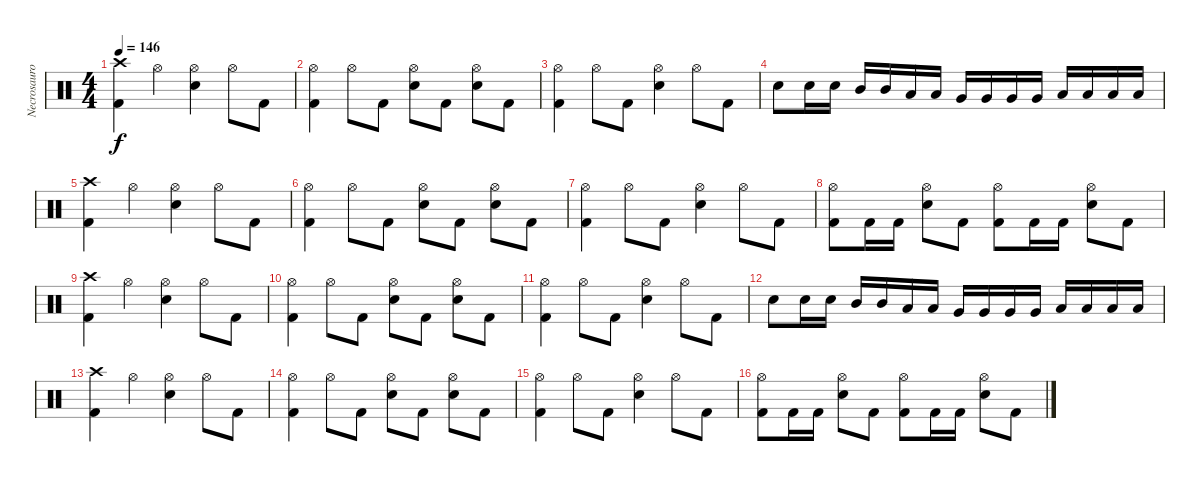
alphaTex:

\track ("Necrosauron" "Necrosauro") {instrument percussion}
\staff {score}
\articulation defaults
\ts (4 4)
\tempo 146
\clef neutral
\ks c
("Crash high (hit)" "Kick (hit) 2").4{dy f} "Hi-Hat (open)".4 ("Hi-Hat (open)" "Snare (hit) 2").4 "Hi-Hat (open)".8 "Kick (hit) 2".8 |
("Hi-Hat (open)" "Kick (hit) 2").4 "Hi-Hat (open)".8 "Kick (hit) 2".8 ("Hi-Hat (open)" "Snare (hit) 2").8 "Kick (hit) 2".8 ("Hi-Hat (open)" "Snare (hit) 2").8 "Kick (hit) 2".8 |
("Hi-Hat (open)" "Kick (hit) 2").4 "Hi-Hat (open)".8 "Kick (hit) 2".8 ("Hi-Hat (open)" "Snare (hit) 2").4 "Hi-Hat (open)".8 "Kick (hit) 2".8 |
"Snare (hit) 2".8 "Snare (hit) 2".16 "Snare (hit) 2".16 "Mid Tom (hit)".16 "Mid Tom (hit)".16 "Low Tom (hit)".16 "Low Tom (hit)".16 "Very Low Tom (hit)".16 "Very Low Tom (hit)".16 "Very Low Tom (hit)".16 "Very Low Tom (hit)".16 "Low Floor Tom (hit)".16 "Low Floor Tom (hit)".16 "Low Floor Tom (hit)".16 "Low Floor Tom (hit)".16 |
("Crash high (hit)" "Kick (hit) 2").4 "Hi-Hat (open)".4 ("Hi-Hat (open)" "Snare (hit) 2").4 "Hi-Hat (open)".8 "Kick (hit) 2".8 |
("Hi-Hat (open)" "Kick (hit) 2").4 "Hi-Hat (open)".8 "Kick (hit) 2".8 ("Hi-Hat (open)" "Snare (hit) 2").8 "Kick (hit) 2".8 ("Hi-Hat (open)" "Snare (hit) 2").8 "Kick (hit) 2".8 |
("Hi-Hat (open)" "Kick (hit) 2").4 "Hi-Hat (open)".8 "Kick (hit) 2".8 ("Hi-Hat (open)" "Snare (hit) 2").4 "Hi-Hat (open)".8 "Kick (hit) 2".8 |
("Hi-Hat (open)" "Kick (hit) 2").8 "Kick (hit) 2".16 "Kick (hit) 2".16 ("Hi-Hat (open)" "Snare (hit) 2").8 "Kick (hit) 2".8 ("Hi-Hat (open)" "Kick (hit) 2").8 "Kick (hit) 2".16 "Kick (hit) 2".16 ("Hi-Hat (open)" "Snare (hit) 2").8 "Kick (hit) 2".8 |
("Crash high (hit)" "Kick (hit) 2").4 "Hi-Hat (open)".4 ("Hi-Hat (open)" "Snare (hit) 2").4 "Hi-Hat (open)".8 "Kick (hit) 2".8 |
("Hi-Hat (open)" "Kick (hit) 2").4 "Hi-Hat (open)".8 "Kick (hit) 2".8 ("Hi-Hat (open)" "Snare (hit) 2").8 "Kick (hit) 2".8 ("Hi-Hat (open)" "Snare (hit) 2").8 "Kick (hit) 2".8 |
("Hi-Hat (open)" "Kick (hit) 2").4 "Hi-Hat (open)".8 "Kick (hit) 2".8 ("Hi-Hat (open)" "Snare (hit) 2").4 "Hi-Hat (open)".8 "Kick (hit) 2".8 |
"Snare (hit) 2".8 "Snare (hit) 2".16 "Snare (hit) 2".16 "Mid Tom (hit)".16 "Mid Tom (hit)".16 "Low Tom (hit)".16 "Low Tom (hit)".16 "Very Low Tom (hit)".16 "Very Low Tom (hit)".16 "Very Low Tom (hit)".16 "Very Low Tom (hit)".16 "Low Floor Tom (hit)".16 "Low Floor Tom (hit)".16 "Low Floor Tom (hit)".16 "Low Floor Tom (hit)".16 |
("Crash high (hit)" "Kick (hit) 2").4 "Hi-Hat (open)".4 ("Hi-Hat (open)" "Snare (hit) 2").4 "Hi-Hat (open)".8 "Kick (hit) 2".8 |
("Hi-Hat (open)" "Kick (hit) 2").4 "Hi-Hat (open)".8 "Kick (hit) 2".8 ("Hi-Hat (open)" "Snare (hit) 2").8 "Kick (hit) 2".8 ("Hi-Hat (open)" "Snare (hit) 2").8 "Kick (hit) 2".8 |
("Hi-Hat (open)" "Kick (hit) 2").4 "Hi-Hat (open)".8 "Kick (hit) 2".8 ("Hi-Hat (open)" "Snare (hit) 2").4 "Hi-Hat (open)".8 "Kick (hit) 2".8 |
("Hi-Hat (open)" "Kick (hit) 2").8 "Kick (hit) 2".16 "Kick (hit) 2".16 ("Hi-Hat (open)" "Snare (hit) 2").8 "Kick (hit) 2".8 ("Hi-Hat (open)" "Kick (hit) 2").8 "Kick (hit) 2".16 "Kick (hit) 2".16 ("Hi-Hat (open)" "Snare (hit) 2").8 "Kick (hit) 2".8
